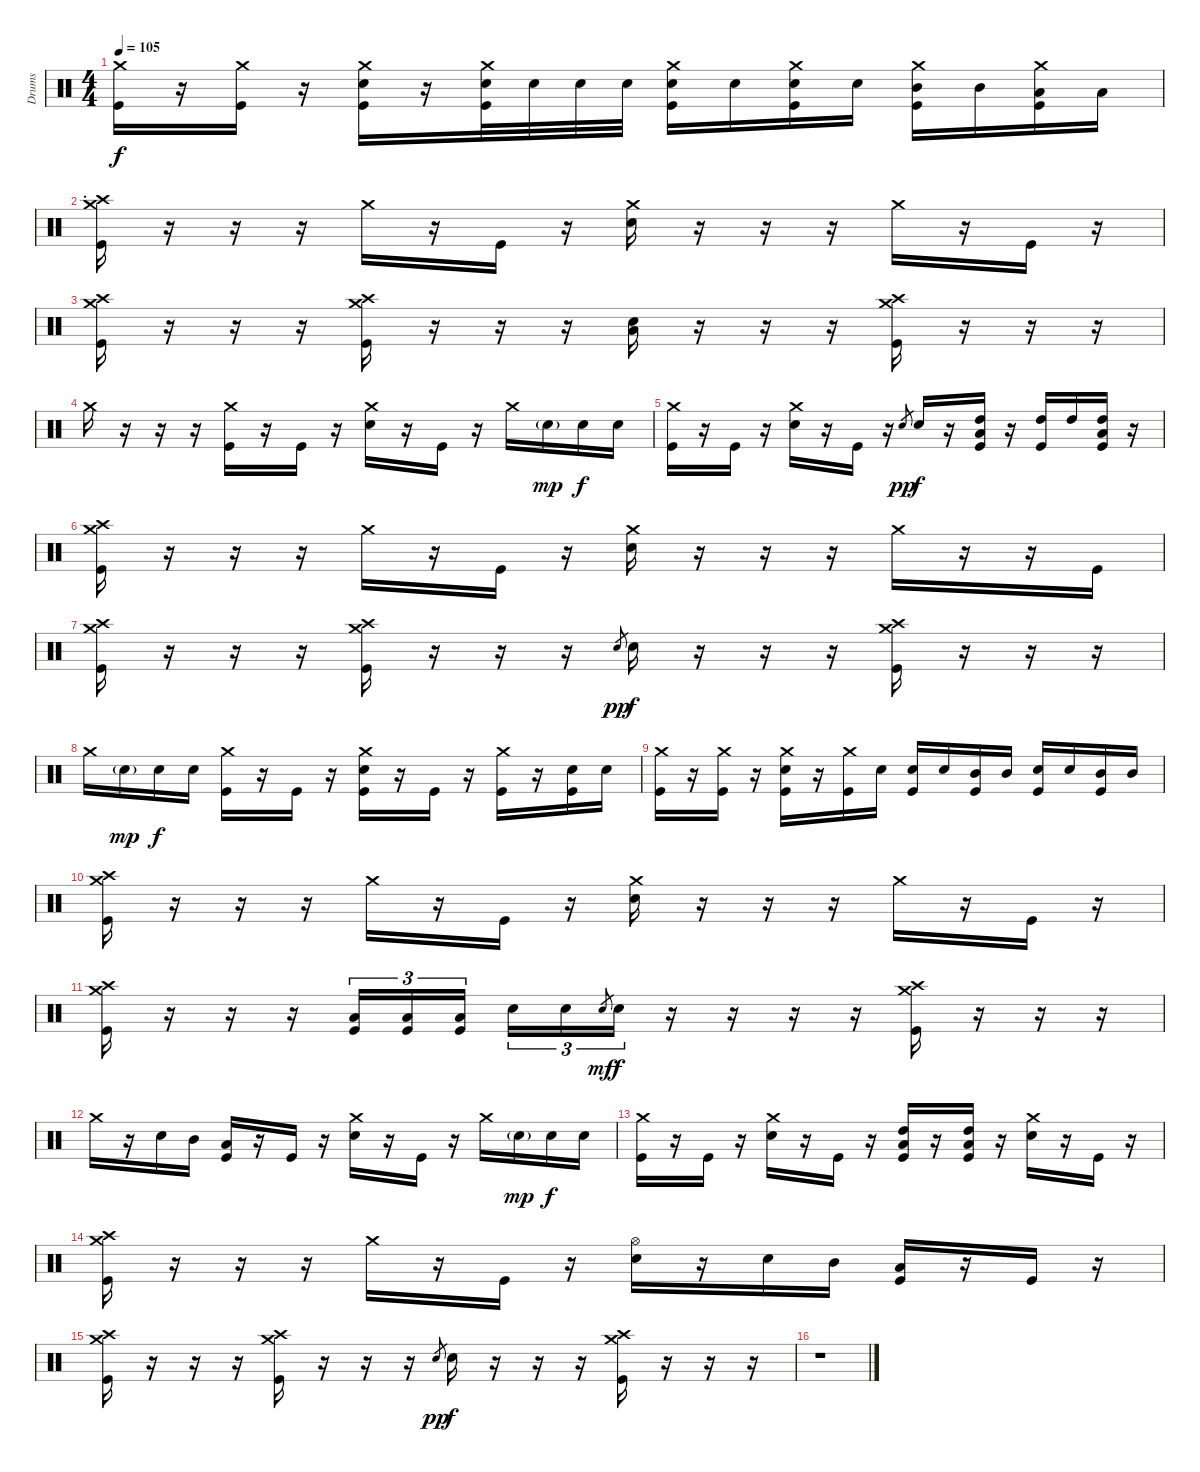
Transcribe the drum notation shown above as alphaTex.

\track ("Drums" "Drums") {instrument percussion}
\staff {score}
\articulation defaults
\ts (4 4)
\tempo 105
\clef neutral
\ks c
("Crash medium (hit)" "Kick (hit)").16{dy f} r.16 ("Crash medium (hit)" "Kick (hit)").16 r.16 ("Crash medium (hit)" "Snare (hit) 2" "Kick (hit)").16 r.16 ("Crash medium (hit)" "Snare (hit) 2" "Kick (hit)").32 "Snare (hit) 2".32 "Snare (hit) 2".32 "Snare (hit) 2".32 ("Crash medium (hit)" "Snare (hit) 2" "Kick (hit)").16 "Snare (hit) 2".16 ("Crash medium (hit)" "Snare (hit) 2" "Kick (hit)").16 "Snare (hit) 2".16 ("Crash medium (hit)" "Mid Tom (hit)" "Kick (hit)").16 "Mid Tom (hit)".16 ("Crash medium (hit)" "Low Tom (hit)" "Kick (hit)").16 "Low Tom (hit)".16 |
\section ("" ".")
("Crash high (hit)" "Crash medium (hit)" "Kick (hit)").16 r.16 r.16 r.16 "Crash medium (hit)".16 r.16 "Kick (hit)".16 r.16 ("Crash medium (hit)" "Snare (hit) 2").16 r.16 r.16 r.16 "Crash medium (hit)".16 r.16 "Kick (hit)".16 r.16 |
("Crash high (hit)" "Crash medium (hit)" "Kick (hit)").16 r.16 r.16 r.16 ("Crash high (hit)" "Crash medium (hit)" "Kick (hit)").16 r.16 r.16 r.16 ("Low Tom (hit)" "Snare (hit) 2").16 r.16 r.16 r.16 ("Crash high (hit)" "Crash medium (hit)" "Kick (hit)").16 r.16 r.16 r.16 |
"Crash medium (hit)".16 r.16 r.16 r.16 ("Crash medium (hit)" "Kick (hit)").16 r.16 "Kick (hit)".16 r.16 ("Crash medium (hit)" "Snare (hit) 2").16 r.16 "Kick (hit)".16 r.16 "Crash medium (hit)".16 "Snare (hit) 2"{g}.16{dy mp} "Snare (hit) 2".16{dy f} "Snare (hit) 2".16 |
("Crash medium (hit)" "Kick (hit)").16 r.16 "Kick (hit)".16 r.16 ("Crash medium (hit)" "Snare (hit) 2").16 r.16 "Kick (hit)".16 r.16 "Snare (hit) 2".8{gr dy pp} "Snare (hit) 2".16{dy f} r.16 ("High Tom (hit)" "Low Tom (hit)" "Kick (hit)").16 r.16 ("High Tom (hit)" "Kick (hit)").16 "High Tom (hit)".16 ("High Tom (hit)" "Low Tom (hit)" "Kick (hit)").16 r.16 |
("Crash high (hit)" "Crash medium (hit)" "Kick (hit)").16 r.16 r.16 r.16 "Crash medium (hit)".16 r.16 "Kick (hit)".16 r.16 ("Crash medium (hit)" "Snare (hit) 2").16 r.16 r.16 r.16 "Crash medium (hit)".16 r.16 r.16 "Kick (hit)".16 |
("Crash high (hit)" "Crash medium (hit)" "Kick (hit)").16 r.16 r.16 r.16 ("Crash high (hit)" "Crash medium (hit)" "Kick (hit)").16 r.16 r.16 r.16 "Snare (hit) 2".8{gr dy pp} "Snare (hit) 2".16{dy f} r.16 r.16 r.16 ("Crash high (hit)" "Crash medium (hit)" "Kick (hit)").16 r.16 r.16 r.16 |
"Crash medium (hit)".16 "Snare (hit) 2"{g}.16{dy mp} "Snare (hit) 2".16{dy f} "Snare (hit) 2".16 ("Crash medium (hit)" "Kick (hit)").16 r.16 "Kick (hit)".16 r.16 ("Crash medium (hit)" "Snare (hit) 2" "Kick (hit)").16 r.16 "Kick (hit)".16 r.16 ("Crash medium (hit)" "Kick (hit)").16 r.16 ("Snare (hit) 2" "Kick (hit)").16 "Snare (hit) 2".16 |
("Crash medium (hit)" "Kick (hit)").16 r.16 ("Crash medium (hit)" "Kick (hit)").16 r.16 ("Crash medium (hit)" "Snare (hit) 2" "Kick (hit)").16 r.16 ("Crash medium (hit)" "Kick (hit)").16 "Snare (hit) 2".16 ("Snare (hit) 2" "Kick (hit)").16 "Snare (hit) 2".16 ("Mid Tom (hit)" "Kick (hit)").16 "Mid Tom (hit)".16 ("Snare (hit) 2" "Kick (hit)").16 "Snare (hit) 2".16 ("Mid Tom (hit)" "Kick (hit)").16 "Mid Tom (hit)".16 |
("Crash high (hit)" "Crash medium (hit)" "Kick (hit)").16 r.16 r.16 r.16 "Crash medium (hit)".16 r.16 "Kick (hit)".16 r.16 ("Crash medium (hit)" "Snare (hit) 2").16 r.16 r.16 r.16 "Crash medium (hit)".16 r.16 "Kick (hit)".16 r.16 |
("Crash high (hit)" "Crash medium (hit)" "Kick (hit)").16 r.16 r.16 r.16 ("Low Tom (hit)" "Kick (hit)").16{tu (3 2)} ("Low Tom (hit)" "Kick (hit)").16{tu (3 2)} ("Low Tom (hit)" "Kick (hit)").16{tu (3 2)} "Snare (hit) 2".16{tu (3 2)} "Snare (hit) 2".16{tu (3 2)} "Snare (hit) 2".8{gr dy mf} "Snare (hit) 2".16{tu (3 2) dy f} r.16 r.16 r.16 r.16 ("Crash high (hit)" "Crash medium (hit)" "Kick (hit)").16 r.16 r.16 r.16 |
"Crash medium (hit)".16 r.16 "Snare (hit) 2".16 "Mid Tom (hit)".16 ("Low Tom (hit)" "Kick (hit)").16 r.16 "Kick (hit)".16 r.16 ("Crash medium (hit)" "Snare (hit) 2").16 r.16 "Kick (hit)".16 r.16 "Crash medium (hit)".16 "Snare (hit) 2"{g}.16{dy mp} "Snare (hit) 2".16{dy f} "Snare (hit) 2".16 |
("Crash medium (hit)" "Kick (hit)").16 r.16 "Kick (hit)".16 r.16 ("Crash medium (hit)" "Snare (hit) 2").16 r.16 "Kick (hit)".16 r.16 ("High Tom (hit)" "Low Tom (hit)" "Kick (hit)").16 r.16 ("High Tom (hit)" "Low Tom (hit)" "Kick (hit)").16 r.16 ("Crash medium (hit)" "Snare (hit) 2").16 r.16 "Kick (hit)".16 r.16 |
("Crash high (hit)" "Crash medium (hit)" "Kick (hit)").16 r.16 r.16 r.16 "Crash medium (hit)".16 r.16 "Kick (hit)".16 r.16 ("Hi-Hat (open)" "Snare (hit) 2").16 r.16 "Snare (hit) 2".16 "Mid Tom (hit)".16 ("Low Tom (hit)" "Kick (hit)").16 r.16 "Kick (hit)".16 r.16 |
("Crash high (hit)" "Crash medium (hit)" "Kick (hit)").16 r.16 r.16 r.16 ("Crash high (hit)" "Crash medium (hit)" "Kick (hit)").16 r.16 r.16 r.16 "Snare (hit) 2".8{gr dy pp} "Snare (hit) 2".16{dy f} r.16 r.16 r.16 ("Crash high (hit)" "Crash medium (hit)" "Kick (hit)").16 r.16 r.16 r.16 |
r.1
